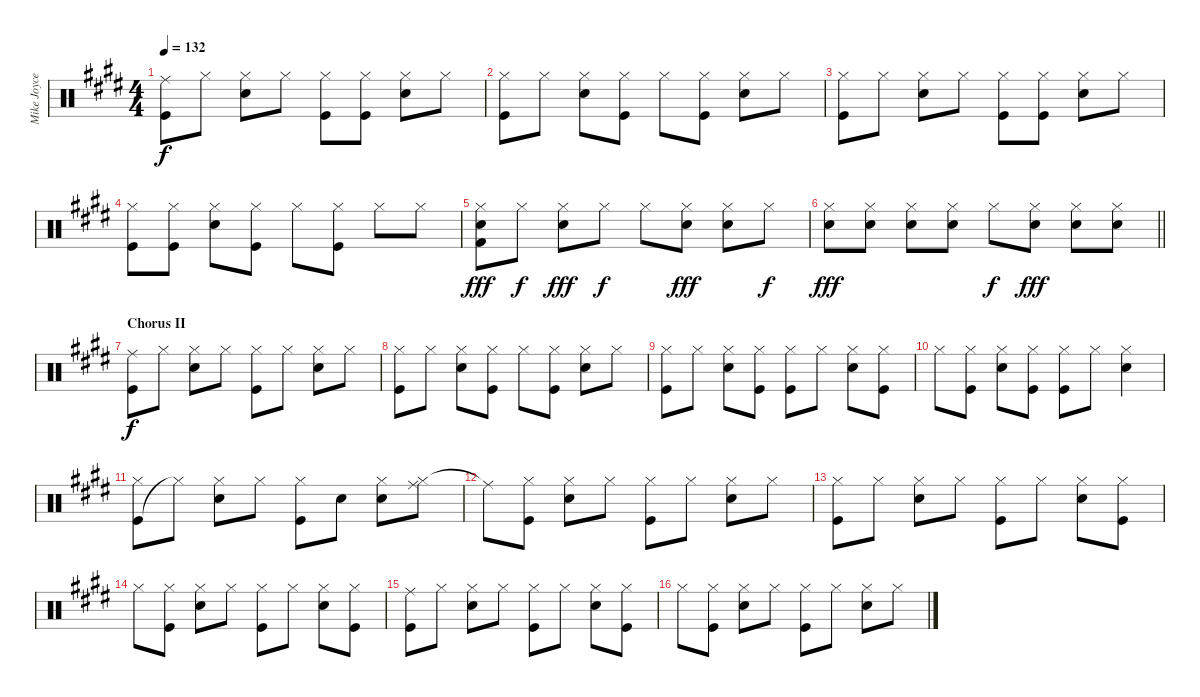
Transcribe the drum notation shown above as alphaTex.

\track ("Mike Joyce's drums" "Mike Joyce") {instrument percussion}
\staff {score}
\articulation defaults
\ts (4 4)
\tempo 132
\clef neutral
\ks e
("Kick (hit)" "Ride (middle)").8{dy f} "Hi-Hat (closed)".8 ("Hi-Hat (closed)" "Snare (hit) 2").8 "Hi-Hat (closed)".8 ("Hi-Hat (closed)" "Kick (hit)").8 ("Kick (hit)" "Hi-Hat (closed)").8 ("Hi-Hat (closed)" "Snare (hit) 2").8 "Hi-Hat (closed)".8 |
("Kick (hit)" "Hi-Hat (closed)").8 "Hi-Hat (closed)".8 ("Hi-Hat (closed)" "Snare (hit) 2").8 ("Kick (hit)" "Hi-Hat (closed)").8 "Hi-Hat (closed)".8 ("Kick (hit)" "Hi-Hat (closed)").8 ("Hi-Hat (closed)" "Snare (hit) 2").8 "Hi-Hat (closed)".8 |
("Kick (hit)" "Hi-Hat (closed)").8 "Hi-Hat (closed)".8 ("Hi-Hat (closed)" "Snare (hit) 2").8 "Hi-Hat (closed)".8 ("Kick (hit)" "Hi-Hat (closed)").8 ("Kick (hit)" "Hi-Hat (closed)").8 ("Snare (hit) 2" "Hi-Hat (closed)").8 "Hi-Hat (closed)".8 |
("Kick (hit)" "Hi-Hat (closed)").8 ("Kick (hit)" "Hi-Hat (closed)").8 ("Snare (hit) 2" "Hi-Hat (closed)").8 ("Kick (hit)" "Hi-Hat (closed)").8 "Hi-Hat (closed)".8 ("Hi-Hat (closed)" "Kick (hit)").8 "Hi-Hat (closed)".8 "Hi-Hat (closed)".8 |
("Hi-Hat (closed)" "Snare (hit) 2" "Kick (hit) 2").8{dy fff} "Hi-Hat (closed)".8{dy f} ("Hi-Hat (closed)" "Snare (hit) 2").8{dy fff} "Hi-Hat (closed)".8{dy f} "Hi-Hat (closed)".8 ("Hi-Hat (closed)" "Snare (hit) 2").8{dy fff} ("Hi-Hat (closed)" "Snare (hit) 2").8 "Hi-Hat (closed)".8{dy f} |
\barLineRight lightlight
("Hi-Hat (closed)" "Snare (hit) 2").8{dy fff} ("Hi-Hat (closed)" "Snare (hit) 2").8 ("Hi-Hat (closed)" "Snare (hit) 2").8 ("Hi-Hat (closed)" "Snare (hit) 2").8 "Hi-Hat (closed)".8{dy f} ("Hi-Hat (closed)" "Snare (hit) 2").8{dy fff} ("Hi-Hat (closed)" "Snare (hit) 2").8 ("Hi-Hat (closed)" "Snare (hit) 2").8 |
\section ("" "Chorus II")
("Kick (hit)" "Ride (middle)").8{dy f} "Hi-Hat (closed)".8 ("Hi-Hat (closed)" "Snare (hit) 2").8 "Hi-Hat (closed)".8 ("Hi-Hat (closed)" "Kick (hit)").8 "Hi-Hat (closed)".8 ("Snare (hit) 2" "Hi-Hat (closed)").8 "Hi-Hat (closed)".8 |
("Kick (hit)" "Hi-Hat (closed)").8 "Hi-Hat (closed)".8 ("Hi-Hat (closed)" "Snare (hit) 2").8 ("Kick (hit)" "Hi-Hat (closed)").8 "Hi-Hat (closed)".8 ("Hi-Hat (closed)" "Kick (hit)").8 ("Snare (hit) 2" "Hi-Hat (closed)").8 "Hi-Hat (closed)".8 |
("Kick (hit)" "Hi-Hat (closed)").8 "Hi-Hat (closed)".8 ("Hi-Hat (closed)" "Snare (hit) 2").8 ("Kick (hit)" "Hi-Hat (closed)").8 ("Kick (hit)" "Hi-Hat (closed)").8 "Hi-Hat (closed)".8 ("Hi-Hat (closed)" "Snare (hit) 2").8 ("Kick (hit)" "Hi-Hat (closed)").8 |
"Hi-Hat (closed)".8 ("Hi-Hat (closed)" "Kick (hit)").8 ("Snare (hit) 2" "Hi-Hat (closed)").8 ("Kick (hit)" "Hi-Hat (closed)").8 ("Hi-Hat (closed)" "Kick (hit)").8 "Hi-Hat (closed)".8 ("Snare (hit) 2" "Hi-Hat (closed)").4 |
("Kick (hit)" "Hi-Hat (closed)").8 "Hi-Hat (closed)"{t}.8 ("Hi-Hat (closed)" "Snare (hit) 2").8 "Hi-Hat (closed)".8 ("Hi-Hat (closed)" "Kick (hit)").8 "Snare (hit) 2".8 ("Snare (hit) 2" "Hi-Hat (closed)").8 ("Hi-Hat (closed)" "Ride (middle)").8 |
"Ride (middle)"{t}.8 ("Hi-Hat (closed)" "Kick (hit)").8 ("Snare (hit) 2" "Hi-Hat (closed)").8 "Hi-Hat (closed)".8 ("Hi-Hat (closed)" "Kick (hit)").8 "Hi-Hat (closed)".8 ("Snare (hit) 2" "Hi-Hat (closed)").8 "Hi-Hat (closed)".8 |
("Kick (hit)" "Hi-Hat (closed)").8 "Hi-Hat (closed)".8 ("Hi-Hat (closed)" "Snare (hit) 2").8 "Hi-Hat (closed)".8 ("Hi-Hat (closed)" "Kick (hit)").8 "Hi-Hat (closed)".8 ("Hi-Hat (closed)" "Snare (hit) 2").8 ("Kick (hit)" "Hi-Hat (closed)").8 |
"Hi-Hat (closed)".8 ("Kick (hit)" "Hi-Hat (closed)").8 ("Snare (hit) 2" "Hi-Hat (closed)").8 "Hi-Hat (closed)".8 ("Kick (hit)" "Hi-Hat (closed)").8 "Hi-Hat (closed)".8 ("Snare (hit) 2" "Hi-Hat (closed)").8 ("Kick (hit)" "Hi-Hat (closed)").8 |
("Kick (hit)" "Ride (middle)").8 "Hi-Hat (closed)".8 ("Hi-Hat (closed)" "Snare (hit) 2").8 "Hi-Hat (closed)".8 ("Kick (hit)" "Hi-Hat (closed)").8 "Hi-Hat (closed)".8 ("Hi-Hat (closed)" "Snare (hit) 2").8 ("Kick (hit)" "Hi-Hat (closed)").8 |
"Hi-Hat (closed)".8 ("Hi-Hat (closed)" "Kick (hit)").8 ("Snare (hit) 2" "Hi-Hat (closed)").8 "Hi-Hat (closed)".8 ("Hi-Hat (closed)" "Kick (hit)").8 "Hi-Hat (closed)".8 ("Hi-Hat (closed)" "Snare (hit) 2").8 "Hi-Hat (closed)".8
